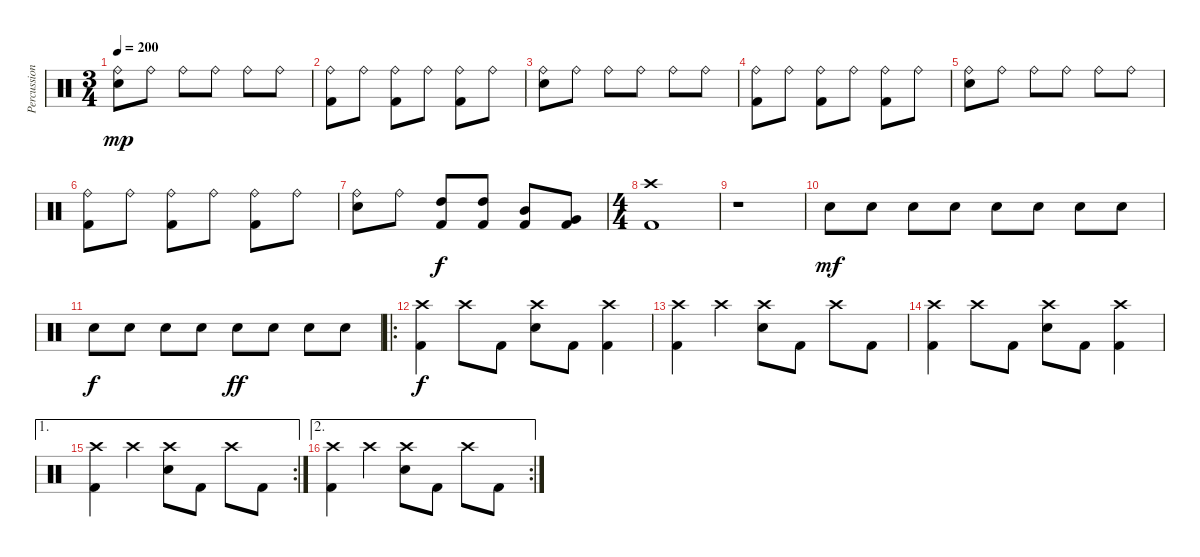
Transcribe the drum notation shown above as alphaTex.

\track ("Percussion" "Percussion") {instrument percussion}
\staff {score}
\articulation defaults
\ts (3 4)
\tempo 200
\clef neutral
\ks c
("Ride (bell)" "Electric Snare (hit)").8{dy mp} "Ride (bell)".8 "Ride (bell)".8 "Ride (bell)".8 "Ride (bell)".8 "Ride (bell)".8 |
("Ride (bell)" "Kick (hit) 2").8 "Ride (bell)".8 ("Ride (bell)" "Kick (hit) 2").8 "Ride (bell)".8 ("Ride (bell)" "Kick (hit) 2").8 "Ride (bell)".8 |
("Ride (bell)" "Electric Snare (hit)").8 "Ride (bell)".8 "Ride (bell)".8 "Ride (bell)".8 "Ride (bell)".8 "Ride (bell)".8 |
("Ride (bell)" "Kick (hit) 2").8 "Ride (bell)".8 ("Ride (bell)" "Kick (hit) 2").8 "Ride (bell)".8 ("Ride (bell)" "Kick (hit) 2").8 "Ride (bell)".8 |
("Ride (bell)" "Electric Snare (hit)").8 "Ride (bell)".8 "Ride (bell)".8 "Ride (bell)".8 "Ride (bell)".8 "Ride (bell)".8 |
("Ride (bell)" "Kick (hit) 2").8 "Ride (bell)".8 ("Ride (bell)" "Kick (hit) 2").8 "Ride (bell)".8 ("Ride (bell)" "Kick (hit) 2").8 "Ride (bell)".8 |
("Ride (bell)" "Electric Snare (hit)").8 "Ride (bell)".8 ("High Tom (hit)" "Kick (hit) 2").8{dy f} ("High Tom (hit)" "Kick (hit) 2").8 ("Mid Tom (hit)" "Kick (hit) 2").8 ("Very Low Tom (hit)" "Kick (hit) 2").8 |
\ts (4 4)
("Crash high (hit)" "Kick (hit) 2").1 |
r.1 |
"Electric Snare (hit)".8{dy mf} "Electric Snare (hit)".8 "Electric Snare (hit)".8 "Electric Snare (hit)".8 "Electric Snare (hit)".8 "Electric Snare (hit)".8 "Electric Snare (hit)".8 "Electric Snare (hit)".8 |
"Electric Snare (hit)".8{dy f} "Electric Snare (hit)".8 "Electric Snare (hit)".8 "Electric Snare (hit)".8 "Electric Snare (hit)".8{dy ff} "Electric Snare (hit)".8 "Electric Snare (hit)".8 "Electric Snare (hit)".8 |
\ro
("Crash high (hit)" "Kick (hit) 2").4{dy f} "Crash high (hit)".8 "Kick (hit) 2".8 ("Crash high (hit)" "Electric Snare (hit)").8 "Kick (hit) 2".8 ("Crash high (hit)" "Kick (hit) 2").4 |
("Crash high (hit)" "Kick (hit) 2").4 "Crash high (hit)".4 ("Crash high (hit)" "Electric Snare (hit)").8 "Kick (hit) 2".8 "Crash high (hit)".8 "Kick (hit) 2".8 |
("Crash high (hit)" "Kick (hit) 2").4 "Crash high (hit)".8 "Kick (hit) 2".8 ("Crash high (hit)" "Electric Snare (hit)").8 "Kick (hit) 2".8 ("Crash high (hit)" "Kick (hit) 2").4 |
\ae 1
\rc 2
("Crash high (hit)" "Kick (hit) 2").4 "Crash high (hit)".4 ("Crash high (hit)" "Electric Snare (hit)").8 "Kick (hit) 2".8 "Crash high (hit)".8 "Kick (hit) 2".8 |
\ae 2
\rc 2
("Crash high (hit)" "Kick (hit) 2").4 "Crash high (hit)".4 ("Crash high (hit)" "Electric Snare (hit)").8 "Kick (hit) 2".8 "Crash high (hit)".8 "Kick (hit) 2".8
